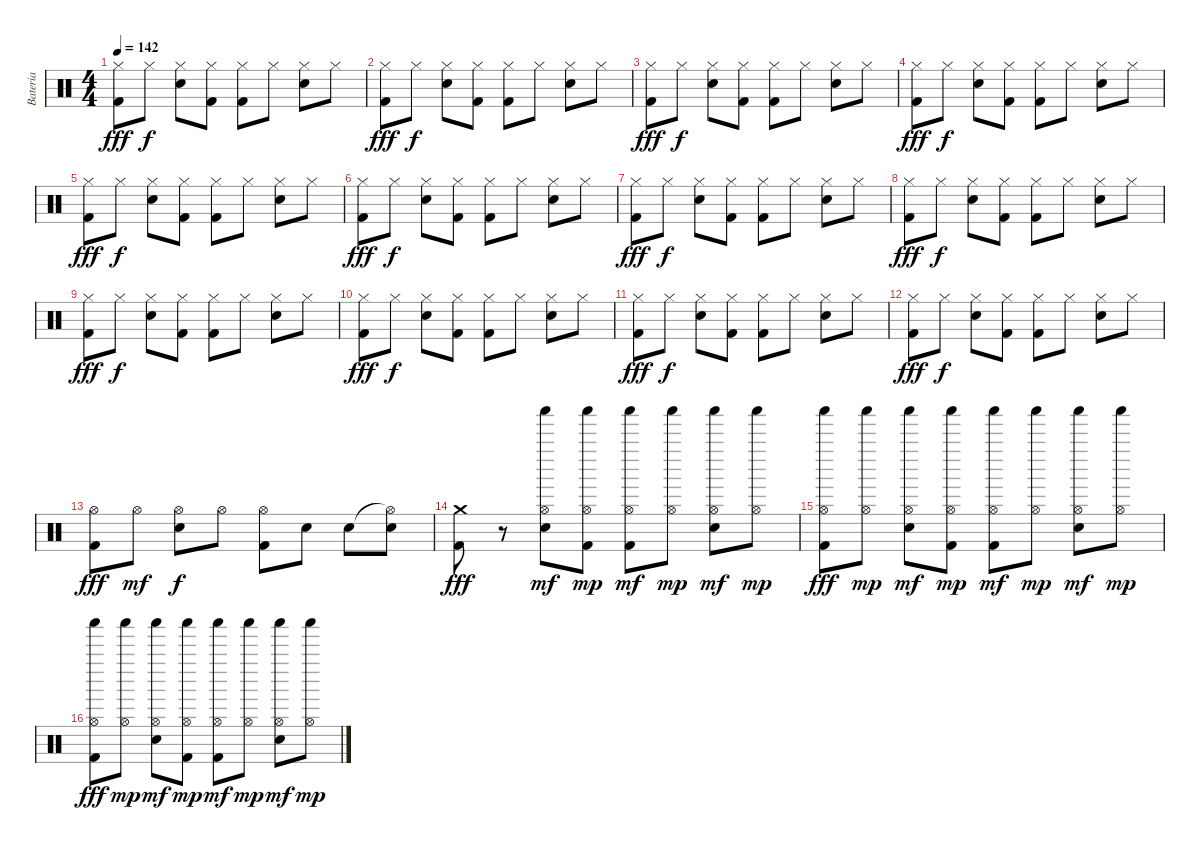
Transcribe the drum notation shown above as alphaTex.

\track ("Bateria" "Bateria") {instrument percussion}
\staff {score}
\articulation defaults
\ts (4 4)
\tempo 142
\clef neutral
\ks c
("Hi-Hat (closed)" "Kick (hit) 2").8{dy fff} "Hi-Hat (closed)".8{dy f} ("Hi-Hat (closed)" "Electric Snare (hit)").8 ("Hi-Hat (closed)" "Kick (hit) 2").8 ("Hi-Hat (closed)" "Kick (hit) 2").8 "Hi-Hat (closed)".8 ("Hi-Hat (closed)" "Electric Snare (hit)").8 "Hi-Hat (closed)".8 |
("Hi-Hat (closed)" "Kick (hit) 2").8{dy fff} "Hi-Hat (closed)".8{dy f} ("Hi-Hat (closed)" "Electric Snare (hit)").8 ("Hi-Hat (closed)" "Kick (hit) 2").8 ("Hi-Hat (closed)" "Kick (hit) 2").8 "Hi-Hat (closed)".8 ("Hi-Hat (closed)" "Electric Snare (hit)").8 "Hi-Hat (closed)".8 |
("Hi-Hat (closed)" "Kick (hit) 2").8{dy fff} "Hi-Hat (closed)".8{dy f} ("Hi-Hat (closed)" "Electric Snare (hit)").8 ("Hi-Hat (closed)" "Kick (hit) 2").8 ("Hi-Hat (closed)" "Kick (hit) 2").8 "Hi-Hat (closed)".8 ("Hi-Hat (closed)" "Electric Snare (hit)").8 "Hi-Hat (closed)".8 |
("Hi-Hat (closed)" "Kick (hit) 2").8{dy fff} "Hi-Hat (closed)".8{dy f} ("Hi-Hat (closed)" "Electric Snare (hit)").8 ("Hi-Hat (closed)" "Kick (hit) 2").8 ("Hi-Hat (closed)" "Kick (hit) 2").8 "Hi-Hat (closed)".8 ("Hi-Hat (closed)" "Electric Snare (hit)").8 "Hi-Hat (closed)".8 |
("Hi-Hat (closed)" "Kick (hit) 2").8{dy fff} "Hi-Hat (closed)".8{dy f} ("Hi-Hat (closed)" "Electric Snare (hit)").8 ("Hi-Hat (closed)" "Kick (hit) 2").8 ("Hi-Hat (closed)" "Kick (hit) 2").8 "Hi-Hat (closed)".8 ("Hi-Hat (closed)" "Electric Snare (hit)").8 "Hi-Hat (closed)".8 |
("Hi-Hat (closed)" "Kick (hit) 2").8{dy fff} "Hi-Hat (closed)".8{dy f} ("Hi-Hat (closed)" "Electric Snare (hit)").8 ("Hi-Hat (closed)" "Kick (hit) 2").8 ("Hi-Hat (closed)" "Kick (hit) 2").8 "Hi-Hat (closed)".8 ("Hi-Hat (closed)" "Electric Snare (hit)").8 "Hi-Hat (closed)".8 |
("Hi-Hat (closed)" "Kick (hit) 2").8{dy fff} "Hi-Hat (closed)".8{dy f} ("Hi-Hat (closed)" "Electric Snare (hit)").8 ("Hi-Hat (closed)" "Kick (hit) 2").8 ("Hi-Hat (closed)" "Kick (hit) 2").8 "Hi-Hat (closed)".8 ("Hi-Hat (closed)" "Electric Snare (hit)").8 "Hi-Hat (closed)".8 |
("Hi-Hat (closed)" "Kick (hit) 2").8{dy fff} "Hi-Hat (closed)".8{dy f} ("Hi-Hat (closed)" "Electric Snare (hit)").8 ("Hi-Hat (closed)" "Kick (hit) 2").8 ("Hi-Hat (closed)" "Kick (hit) 2").8 "Hi-Hat (closed)".8 ("Hi-Hat (closed)" "Electric Snare (hit)").8 "Hi-Hat (closed)".8 |
("Hi-Hat (closed)" "Kick (hit) 2").8{dy fff} "Hi-Hat (closed)".8{dy f} ("Hi-Hat (closed)" "Electric Snare (hit)").8 ("Hi-Hat (closed)" "Kick (hit) 2").8 ("Hi-Hat (closed)" "Kick (hit) 2").8 "Hi-Hat (closed)".8 ("Hi-Hat (closed)" "Electric Snare (hit)").8 "Hi-Hat (closed)".8 |
("Hi-Hat (closed)" "Kick (hit) 2").8{dy fff} "Hi-Hat (closed)".8{dy f} ("Hi-Hat (closed)" "Electric Snare (hit)").8 ("Hi-Hat (closed)" "Kick (hit) 2").8 ("Hi-Hat (closed)" "Kick (hit) 2").8 "Hi-Hat (closed)".8 ("Hi-Hat (closed)" "Electric Snare (hit)").8 "Hi-Hat (closed)".8 |
("Hi-Hat (closed)" "Kick (hit) 2").8{dy fff} "Hi-Hat (closed)".8{dy f} ("Hi-Hat (closed)" "Electric Snare (hit)").8 ("Hi-Hat (closed)" "Kick (hit) 2").8 ("Hi-Hat (closed)" "Kick (hit) 2").8 "Hi-Hat (closed)".8 ("Hi-Hat (closed)" "Electric Snare (hit)").8 "Hi-Hat (closed)".8 |
("Hi-Hat (closed)" "Kick (hit) 2").8{dy fff} "Hi-Hat (closed)".8{dy f} ("Hi-Hat (closed)" "Electric Snare (hit)").8 ("Hi-Hat (closed)" "Kick (hit) 2").8 ("Hi-Hat (closed)" "Kick (hit) 2").8 "Hi-Hat (closed)".8 ("Hi-Hat (closed)" "Electric Snare (hit)").8 "Hi-Hat (closed)".8 |
("Hi-Hat (open)" "Kick (hit) 2").8{dy fff} "Hi-Hat (open)".8{dy mf} ("Hi-Hat (open)" "Electric Snare (hit)").8{dy f} "Hi-Hat (open)".8 ("Hi-Hat (open)" "Kick (hit) 2").8 "Electric Snare (hit)".8 "Electric Snare (hit)".8 ("Hi-Hat (open)"{t} "Electric Snare (hit)").8 |
("Crash medium (hit)" "Kick (hit) 2").8{dy fff} r.8 ("Shaker (hit)" "Hi-Hat (open)" "Electric Snare (hit)").8{dy mf} ("Shaker (hit)" "Hi-Hat (open)" "Kick (hit) 2").8{dy mp} ("Shaker (hit)" "Hi-Hat (open)" "Kick (hit) 2").8{dy mf} ("Shaker (hit)" "Hi-Hat (open)").8{dy mp} ("Shaker (hit)" "Hi-Hat (open)" "Electric Snare (hit)").8{dy mf} ("Shaker (hit)" "Hi-Hat (open)").8{dy mp} |
("Shaker (hit)" "Hi-Hat (open)" "Kick (hit) 2").8{dy fff} ("Shaker (hit)" "Hi-Hat (open)").8{dy mp} ("Shaker (hit)" "Hi-Hat (open)" "Electric Snare (hit)").8{dy mf} ("Shaker (hit)" "Hi-Hat (open)" "Kick (hit) 2").8{dy mp} ("Shaker (hit)" "Hi-Hat (open)" "Kick (hit) 2").8{dy mf} ("Shaker (hit)" "Hi-Hat (open)").8{dy mp} ("Shaker (hit)" "Hi-Hat (open)" "Electric Snare (hit)").8{dy mf} ("Shaker (hit)" "Hi-Hat (open)").8{dy mp} |
("Shaker (hit)" "Hi-Hat (open)" "Kick (hit) 2").8{dy fff} ("Shaker (hit)" "Hi-Hat (open)").8{dy mp} ("Shaker (hit)" "Hi-Hat (open)" "Electric Snare (hit)").8{dy mf} ("Shaker (hit)" "Hi-Hat (open)" "Kick (hit) 2").8{dy mp} ("Shaker (hit)" "Hi-Hat (open)" "Kick (hit) 2").8{dy mf} ("Shaker (hit)" "Hi-Hat (open)").8{dy mp} ("Shaker (hit)" "Hi-Hat (open)" "Electric Snare (hit)").8{dy mf} ("Shaker (hit)" "Hi-Hat (open)").8{dy mp}
